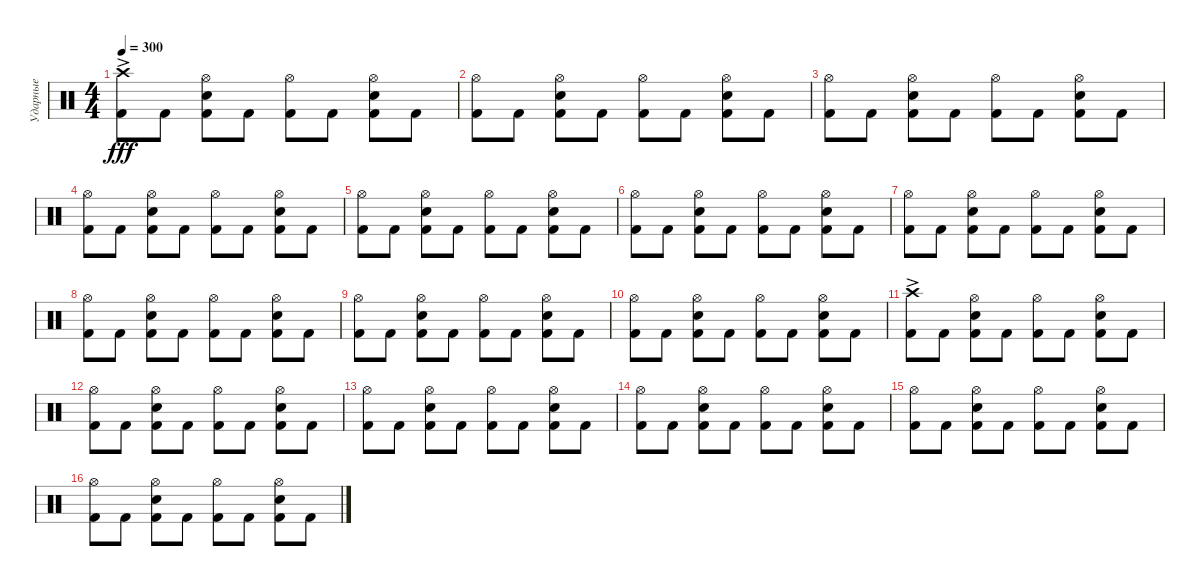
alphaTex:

\track ("Ударные" "Ударные") {instrument percussion}
\staff {score}
\articulation defaults
\ts (4 4)
\tempo 300
\clef neutral
\ks c
("Kick (hit) 2" "Crash high (hit)"{ac}).8{dy fff} "Kick (hit) 2".8 ("Kick (hit) 2" "Snare (hit) 2" "Hi-Hat (open)").8 "Kick (hit) 2".8 ("Kick (hit) 2" "Hi-Hat (open)").8 "Kick (hit) 2".8 ("Kick (hit) 2" "Snare (hit) 2" "Hi-Hat (open)").8 "Kick (hit) 2".8 |
("Kick (hit) 2" "Hi-Hat (open)").8 "Kick (hit) 2".8 ("Kick (hit) 2" "Snare (hit) 2" "Hi-Hat (open)").8 "Kick (hit) 2".8 ("Kick (hit) 2" "Hi-Hat (open)").8 "Kick (hit) 2".8 ("Kick (hit) 2" "Snare (hit) 2" "Hi-Hat (open)").8 "Kick (hit) 2".8 |
("Kick (hit) 2" "Hi-Hat (open)").8 "Kick (hit) 2".8 ("Kick (hit) 2" "Snare (hit) 2" "Hi-Hat (open)").8 "Kick (hit) 2".8 ("Kick (hit) 2" "Hi-Hat (open)").8 "Kick (hit) 2".8 ("Kick (hit) 2" "Snare (hit) 2" "Hi-Hat (open)").8 "Kick (hit) 2".8 |
("Kick (hit) 2" "Hi-Hat (open)").8 "Kick (hit) 2".8 ("Kick (hit) 2" "Snare (hit) 2" "Hi-Hat (open)").8 "Kick (hit) 2".8 ("Kick (hit) 2" "Hi-Hat (open)").8 "Kick (hit) 2".8 ("Kick (hit) 2" "Snare (hit) 2" "Hi-Hat (open)").8 "Kick (hit) 2".8 |
("Kick (hit) 2" "Hi-Hat (open)").8 "Kick (hit) 2".8 ("Kick (hit) 2" "Snare (hit) 2" "Hi-Hat (open)").8 "Kick (hit) 2".8 ("Kick (hit) 2" "Hi-Hat (open)").8 "Kick (hit) 2".8 ("Kick (hit) 2" "Snare (hit) 2" "Hi-Hat (open)").8 "Kick (hit) 2".8 |
("Kick (hit) 2" "Hi-Hat (open)").8 "Kick (hit) 2".8 ("Kick (hit) 2" "Snare (hit) 2" "Hi-Hat (open)").8 "Kick (hit) 2".8 ("Kick (hit) 2" "Hi-Hat (open)").8 "Kick (hit) 2".8 ("Kick (hit) 2" "Snare (hit) 2" "Hi-Hat (open)").8 "Kick (hit) 2".8 |
("Kick (hit) 2" "Hi-Hat (open)").8 "Kick (hit) 2".8 ("Kick (hit) 2" "Snare (hit) 2" "Hi-Hat (open)").8 "Kick (hit) 2".8 ("Kick (hit) 2" "Hi-Hat (open)").8 "Kick (hit) 2".8 ("Kick (hit) 2" "Snare (hit) 2" "Hi-Hat (open)").8 "Kick (hit) 2".8 |
("Kick (hit) 2" "Hi-Hat (open)").8 "Kick (hit) 2".8 ("Kick (hit) 2" "Snare (hit) 2" "Hi-Hat (open)").8 "Kick (hit) 2".8 ("Kick (hit) 2" "Hi-Hat (open)").8 "Kick (hit) 2".8 ("Kick (hit) 2" "Snare (hit) 2" "Hi-Hat (open)").8 "Kick (hit) 2".8 |
("Kick (hit) 2" "Hi-Hat (open)").8 "Kick (hit) 2".8 ("Kick (hit) 2" "Snare (hit) 2" "Hi-Hat (open)").8 "Kick (hit) 2".8 ("Kick (hit) 2" "Hi-Hat (open)").8 "Kick (hit) 2".8 ("Kick (hit) 2" "Snare (hit) 2" "Hi-Hat (open)").8 "Kick (hit) 2".8 |
("Kick (hit) 2" "Hi-Hat (open)").8 "Kick (hit) 2".8 ("Kick (hit) 2" "Snare (hit) 2" "Hi-Hat (open)").8 "Kick (hit) 2".8 ("Kick (hit) 2" "Hi-Hat (open)").8 "Kick (hit) 2".8 ("Kick (hit) 2" "Snare (hit) 2" "Hi-Hat (open)").8 "Kick (hit) 2".8 |
("Kick (hit) 2" "Crash high (hit)"{ac}).8 "Kick (hit) 2".8 ("Kick (hit) 2" "Snare (hit) 2" "Hi-Hat (open)").8 "Kick (hit) 2".8 ("Kick (hit) 2" "Hi-Hat (open)").8 "Kick (hit) 2".8 ("Kick (hit) 2" "Snare (hit) 2" "Hi-Hat (open)").8 "Kick (hit) 2".8 |
("Kick (hit) 2" "Hi-Hat (open)").8 "Kick (hit) 2".8 ("Kick (hit) 2" "Snare (hit) 2" "Hi-Hat (open)").8 "Kick (hit) 2".8 ("Kick (hit) 2" "Hi-Hat (open)").8 "Kick (hit) 2".8 ("Kick (hit) 2" "Snare (hit) 2" "Hi-Hat (open)").8 "Kick (hit) 2".8 |
("Kick (hit) 2" "Hi-Hat (open)").8 "Kick (hit) 2".8 ("Kick (hit) 2" "Snare (hit) 2" "Hi-Hat (open)").8 "Kick (hit) 2".8 ("Kick (hit) 2" "Hi-Hat (open)").8 "Kick (hit) 2".8 ("Kick (hit) 2" "Snare (hit) 2" "Hi-Hat (open)").8 "Kick (hit) 2".8 |
("Kick (hit) 2" "Hi-Hat (open)").8 "Kick (hit) 2".8 ("Kick (hit) 2" "Snare (hit) 2" "Hi-Hat (open)").8 "Kick (hit) 2".8 ("Kick (hit) 2" "Hi-Hat (open)").8 "Kick (hit) 2".8 ("Kick (hit) 2" "Snare (hit) 2" "Hi-Hat (open)").8 "Kick (hit) 2".8 |
("Kick (hit) 2" "Hi-Hat (open)").8 "Kick (hit) 2".8 ("Kick (hit) 2" "Snare (hit) 2" "Hi-Hat (open)").8 "Kick (hit) 2".8 ("Kick (hit) 2" "Hi-Hat (open)").8 "Kick (hit) 2".8 ("Kick (hit) 2" "Snare (hit) 2" "Hi-Hat (open)").8 "Kick (hit) 2".8 |
("Kick (hit) 2" "Hi-Hat (open)").8 "Kick (hit) 2".8 ("Kick (hit) 2" "Snare (hit) 2" "Hi-Hat (open)").8 "Kick (hit) 2".8 ("Kick (hit) 2" "Hi-Hat (open)").8 "Kick (hit) 2".8 ("Kick (hit) 2" "Snare (hit) 2" "Hi-Hat (open)").8 "Kick (hit) 2".8
